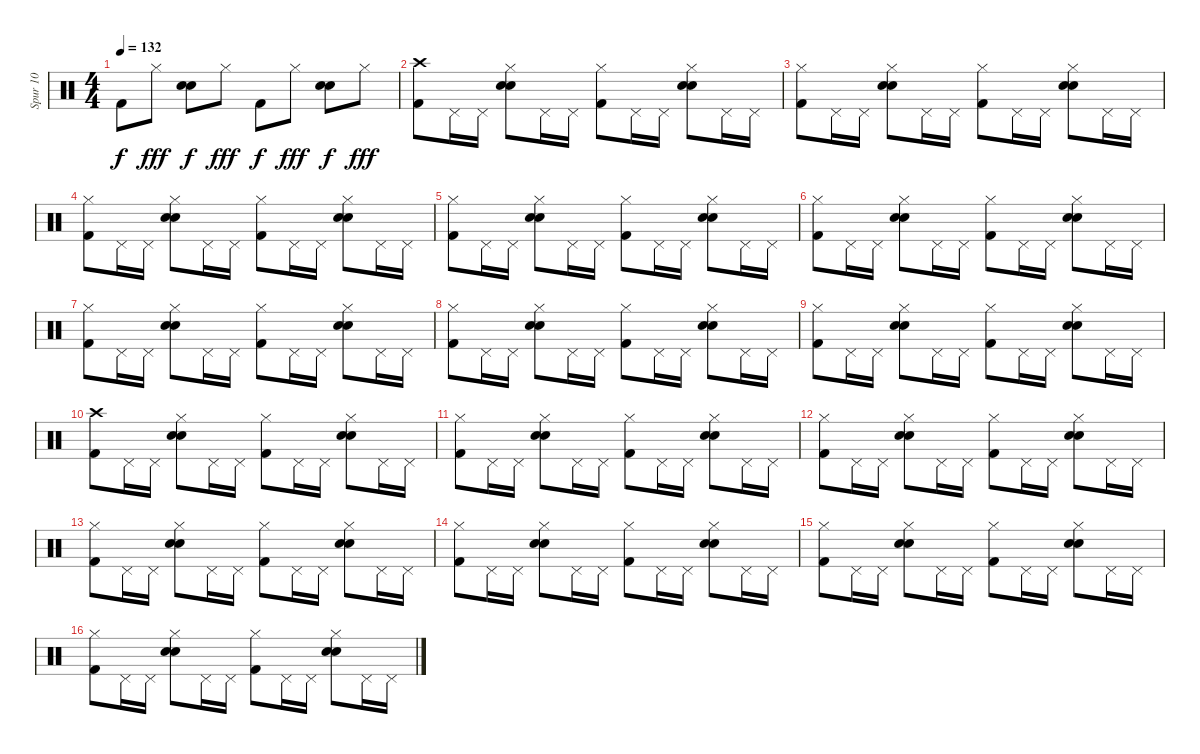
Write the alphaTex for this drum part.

\track ("Spur 10" "Spur 10") {instrument percussion}
\staff {score}
\articulation defaults
\ts (4 4)
\tempo 132
\clef neutral
\ks c "Kick (hit) 2".8{dy f} "Hi-Hat (closed)".8{dy fff}
("Hand Clap (hit)" "Electric Snare (hit)").8{dy f} "Hi-Hat (closed)".8{dy fff} "Kick (hit) 2".8{dy f} "Hi-Hat (closed)".8{dy fff} ("Hand Clap (hit)" "Electric Snare (hit)").8{dy f} "Hi-Hat (closed)".8{dy fff} |
("Crash high (hit)" "Kick (hit) 2").8 "Pedal Hi-Hat (hit)".16 "Pedal Hi-Hat (hit)".16 ("Electric Snare (hit)" "Hi-Hat (closed)" "Hand Clap (hit)").8 "Pedal Hi-Hat (hit)".16 "Pedal Hi-Hat (hit)".16 ("Kick (hit) 2" "Hi-Hat (closed)").8 "Pedal Hi-Hat (hit)".16 "Pedal Hi-Hat (hit)".16 ("Electric Snare (hit)" "Hi-Hat (closed)" "Hand Clap (hit)").8 "Pedal Hi-Hat (hit)".16 "Pedal Hi-Hat (hit)".16 |
("Kick (hit) 2" "Hi-Hat (closed)").8 "Pedal Hi-Hat (hit)".16 "Pedal Hi-Hat (hit)".16 ("Electric Snare (hit)" "Hi-Hat (closed)" "Hand Clap (hit)").8 "Pedal Hi-Hat (hit)".16 "Pedal Hi-Hat (hit)".16 ("Kick (hit) 2" "Hi-Hat (closed)").8 "Pedal Hi-Hat (hit)".16 "Pedal Hi-Hat (hit)".16 ("Electric Snare (hit)" "Hi-Hat (closed)" "Hand Clap (hit)").8 "Pedal Hi-Hat (hit)".16 "Pedal Hi-Hat (hit)".16 |
("Kick (hit) 2" "Hi-Hat (closed)").8 "Pedal Hi-Hat (hit)".16 "Pedal Hi-Hat (hit)".16 ("Electric Snare (hit)" "Hi-Hat (closed)" "Hand Clap (hit)").8 "Pedal Hi-Hat (hit)".16 "Pedal Hi-Hat (hit)".16 ("Kick (hit) 2" "Hi-Hat (closed)").8 "Pedal Hi-Hat (hit)".16 "Pedal Hi-Hat (hit)".16 ("Electric Snare (hit)" "Hi-Hat (closed)" "Hand Clap (hit)").8 "Pedal Hi-Hat (hit)".16 "Pedal Hi-Hat (hit)".16 |
("Kick (hit) 2" "Hi-Hat (closed)").8 "Pedal Hi-Hat (hit)".16 "Pedal Hi-Hat (hit)".16 ("Electric Snare (hit)" "Hi-Hat (closed)" "Hand Clap (hit)").8 "Pedal Hi-Hat (hit)".16 "Pedal Hi-Hat (hit)".16 ("Kick (hit) 2" "Hi-Hat (closed)").8 "Pedal Hi-Hat (hit)".16 "Pedal Hi-Hat (hit)".16 ("Electric Snare (hit)" "Hi-Hat (closed)" "Hand Clap (hit)").8 "Pedal Hi-Hat (hit)".16 "Pedal Hi-Hat (hit)".16 |
("Kick (hit) 2" "Hi-Hat (closed)").8 "Pedal Hi-Hat (hit)".16 "Pedal Hi-Hat (hit)".16 ("Electric Snare (hit)" "Hi-Hat (closed)" "Hand Clap (hit)").8 "Pedal Hi-Hat (hit)".16 "Pedal Hi-Hat (hit)".16 ("Kick (hit) 2" "Hi-Hat (closed)").8 "Pedal Hi-Hat (hit)".16 "Pedal Hi-Hat (hit)".16 ("Electric Snare (hit)" "Hi-Hat (closed)" "Hand Clap (hit)").8 "Pedal Hi-Hat (hit)".16 "Pedal Hi-Hat (hit)".16 |
("Kick (hit) 2" "Hi-Hat (closed)").8 "Pedal Hi-Hat (hit)".16 "Pedal Hi-Hat (hit)".16 ("Electric Snare (hit)" "Hi-Hat (closed)" "Hand Clap (hit)").8 "Pedal Hi-Hat (hit)".16 "Pedal Hi-Hat (hit)".16 ("Kick (hit) 2" "Hi-Hat (closed)").8 "Pedal Hi-Hat (hit)".16 "Pedal Hi-Hat (hit)".16 ("Electric Snare (hit)" "Hi-Hat (closed)" "Hand Clap (hit)").8 "Pedal Hi-Hat (hit)".16 "Pedal Hi-Hat (hit)".16 |
("Kick (hit) 2" "Hi-Hat (closed)").8 "Pedal Hi-Hat (hit)".16 "Pedal Hi-Hat (hit)".16 ("Electric Snare (hit)" "Hi-Hat (closed)" "Hand Clap (hit)").8 "Pedal Hi-Hat (hit)".16 "Pedal Hi-Hat (hit)".16 ("Kick (hit) 2" "Hi-Hat (closed)").8 "Pedal Hi-Hat (hit)".16 "Pedal Hi-Hat (hit)".16 ("Electric Snare (hit)" "Hi-Hat (closed)" "Hand Clap (hit)").8 "Pedal Hi-Hat (hit)".16 "Pedal Hi-Hat (hit)".16 |
("Kick (hit) 2" "Hi-Hat (closed)").8 "Pedal Hi-Hat (hit)".16 "Pedal Hi-Hat (hit)".16 ("Electric Snare (hit)" "Hi-Hat (closed)" "Hand Clap (hit)").8 "Pedal Hi-Hat (hit)".16 "Pedal Hi-Hat (hit)".16 ("Kick (hit) 2" "Hi-Hat (closed)").8 "Pedal Hi-Hat (hit)".16 "Pedal Hi-Hat (hit)".16 ("Electric Snare (hit)" "Hi-Hat (closed)" "Hand Clap (hit)").8 "Pedal Hi-Hat (hit)".16 "Pedal Hi-Hat (hit)".16 |
("Crash high (hit)" "Kick (hit) 2").8 "Pedal Hi-Hat (hit)".16 "Pedal Hi-Hat (hit)".16 ("Electric Snare (hit)" "Hi-Hat (closed)" "Hand Clap (hit)").8 "Pedal Hi-Hat (hit)".16 "Pedal Hi-Hat (hit)".16 ("Kick (hit) 2" "Hi-Hat (closed)").8 "Pedal Hi-Hat (hit)".16 "Pedal Hi-Hat (hit)".16 ("Electric Snare (hit)" "Hi-Hat (closed)" "Hand Clap (hit)").8 "Pedal Hi-Hat (hit)".16 "Pedal Hi-Hat (hit)".16 |
("Kick (hit) 2" "Hi-Hat (closed)").8 "Pedal Hi-Hat (hit)".16 "Pedal Hi-Hat (hit)".16 ("Electric Snare (hit)" "Hi-Hat (closed)" "Hand Clap (hit)").8 "Pedal Hi-Hat (hit)".16 "Pedal Hi-Hat (hit)".16 ("Kick (hit) 2" "Hi-Hat (closed)").8 "Pedal Hi-Hat (hit)".16 "Pedal Hi-Hat (hit)".16 ("Electric Snare (hit)" "Hi-Hat (closed)" "Hand Clap (hit)").8 "Pedal Hi-Hat (hit)".16 "Pedal Hi-Hat (hit)".16 |
("Kick (hit) 2" "Hi-Hat (closed)").8 "Pedal Hi-Hat (hit)".16 "Pedal Hi-Hat (hit)".16 ("Electric Snare (hit)" "Hi-Hat (closed)" "Hand Clap (hit)").8 "Pedal Hi-Hat (hit)".16 "Pedal Hi-Hat (hit)".16 ("Kick (hit) 2" "Hi-Hat (closed)").8 "Pedal Hi-Hat (hit)".16 "Pedal Hi-Hat (hit)".16 ("Electric Snare (hit)" "Hi-Hat (closed)" "Hand Clap (hit)").8 "Pedal Hi-Hat (hit)".16 "Pedal Hi-Hat (hit)".16 |
("Kick (hit) 2" "Hi-Hat (closed)").8 "Pedal Hi-Hat (hit)".16 "Pedal Hi-Hat (hit)".16 ("Electric Snare (hit)" "Hi-Hat (closed)" "Hand Clap (hit)").8 "Pedal Hi-Hat (hit)".16 "Pedal Hi-Hat (hit)".16 ("Kick (hit) 2" "Hi-Hat (closed)").8 "Pedal Hi-Hat (hit)".16 "Pedal Hi-Hat (hit)".16 ("Electric Snare (hit)" "Hi-Hat (closed)" "Hand Clap (hit)").8 "Pedal Hi-Hat (hit)".16 "Pedal Hi-Hat (hit)".16 |
("Kick (hit) 2" "Hi-Hat (closed)").8 "Pedal Hi-Hat (hit)".16 "Pedal Hi-Hat (hit)".16 ("Electric Snare (hit)" "Hi-Hat (closed)" "Hand Clap (hit)").8 "Pedal Hi-Hat (hit)".16 "Pedal Hi-Hat (hit)".16 ("Kick (hit) 2" "Hi-Hat (closed)").8 "Pedal Hi-Hat (hit)".16 "Pedal Hi-Hat (hit)".16 ("Electric Snare (hit)" "Hi-Hat (closed)" "Hand Clap (hit)").8 "Pedal Hi-Hat (hit)".16 "Pedal Hi-Hat (hit)".16 |
("Kick (hit) 2" "Hi-Hat (closed)").8 "Pedal Hi-Hat (hit)".16 "Pedal Hi-Hat (hit)".16 ("Electric Snare (hit)" "Hi-Hat (closed)" "Hand Clap (hit)").8 "Pedal Hi-Hat (hit)".16 "Pedal Hi-Hat (hit)".16 ("Kick (hit) 2" "Hi-Hat (closed)").8 "Pedal Hi-Hat (hit)".16 "Pedal Hi-Hat (hit)".16 ("Electric Snare (hit)" "Hi-Hat (closed)" "Hand Clap (hit)").8 "Pedal Hi-Hat (hit)".16 "Pedal Hi-Hat (hit)".16 |
("Kick (hit) 2" "Hi-Hat (closed)").8 "Pedal Hi-Hat (hit)".16 "Pedal Hi-Hat (hit)".16 ("Electric Snare (hit)" "Hi-Hat (closed)" "Hand Clap (hit)").8 "Pedal Hi-Hat (hit)".16 "Pedal Hi-Hat (hit)".16 ("Kick (hit) 2" "Hi-Hat (closed)").8 "Pedal Hi-Hat (hit)".16 "Pedal Hi-Hat (hit)".16 ("Electric Snare (hit)" "Hi-Hat (closed)" "Hand Clap (hit)").8 "Pedal Hi-Hat (hit)".16 "Pedal Hi-Hat (hit)".16
